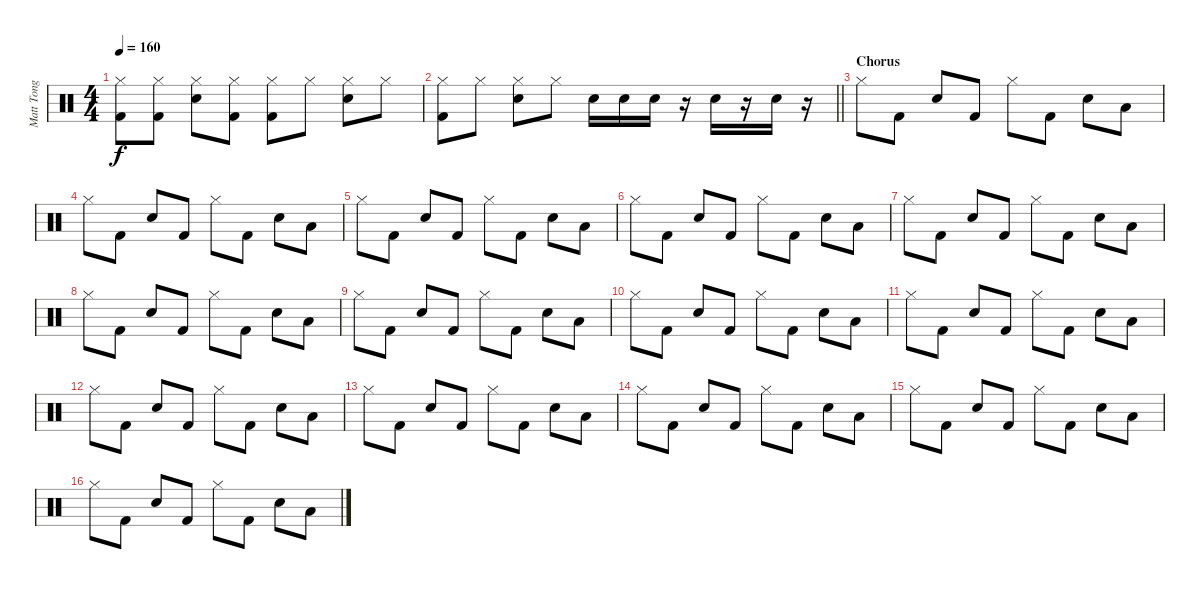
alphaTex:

\track ("Matt Tong" "Matt Tong") {instrument percussion}
\staff {score}
\articulation defaults
\ts (4 4)
\tempo 160
\clef neutral
\ks c
("Hi-Hat (closed)" "Kick (hit) 2").8{dy f} ("Hi-Hat (closed)" "Kick (hit) 2").8 ("Hi-Hat (closed)" "Snare (hit) 2").8 ("Hi-Hat (closed)" "Kick (hit) 2").8 ("Hi-Hat (closed)" "Kick (hit) 2").8 "Hi-Hat (closed)".8 ("Hi-Hat (closed)" "Snare (hit) 2").8 "Hi-Hat (closed)".8 |
\barLineRight lightlight
("Hi-Hat (closed)" "Kick (hit) 2").8 "Hi-Hat (closed)".8 ("Hi-Hat (closed)" "Snare (hit) 2").8 "Hi-Hat (closed)".8 "Snare (hit) 2".16 "Snare (hit) 2".16 "Snare (hit) 2".16 r.16 "Snare (hit) 2".16 r.16 "Snare (hit) 2".16 r.16 |
\section ("" "Chorus")
"Hi-Hat (closed)".8 "Kick (hit) 2".8 "Snare (hit) 2".8 "Kick (hit) 2".8 "Hi-Hat (closed)".8 "Kick (hit) 2".8 "Snare (hit) 2".8 "Low Tom (hit)".8 |
"Hi-Hat (closed)".8 "Kick (hit) 2".8 "Snare (hit) 2".8 "Kick (hit) 2".8 "Hi-Hat (closed)".8 "Kick (hit) 2".8 "Snare (hit) 2".8 "Low Tom (hit)".8 |
"Hi-Hat (closed)".8 "Kick (hit) 2".8 "Snare (hit) 2".8 "Kick (hit) 2".8 "Hi-Hat (closed)".8 "Kick (hit) 2".8 "Snare (hit) 2".8 "Low Tom (hit)".8 |
"Hi-Hat (closed)".8 "Kick (hit) 2".8 "Snare (hit) 2".8 "Kick (hit) 2".8 "Hi-Hat (closed)".8 "Kick (hit) 2".8 "Snare (hit) 2".8 "Low Tom (hit)".8 |
"Hi-Hat (closed)".8 "Kick (hit) 2".8 "Snare (hit) 2".8 "Kick (hit) 2".8 "Hi-Hat (closed)".8 "Kick (hit) 2".8 "Snare (hit) 2".8 "Low Tom (hit)".8 |
"Hi-Hat (closed)".8 "Kick (hit) 2".8 "Snare (hit) 2".8 "Kick (hit) 2".8 "Hi-Hat (closed)".8 "Kick (hit) 2".8 "Snare (hit) 2".8 "Low Tom (hit)".8 |
"Hi-Hat (closed)".8 "Kick (hit) 2".8 "Snare (hit) 2".8 "Kick (hit) 2".8 "Hi-Hat (closed)".8 "Kick (hit) 2".8 "Snare (hit) 2".8 "Low Tom (hit)".8 |
"Hi-Hat (closed)".8 "Kick (hit) 2".8 "Snare (hit) 2".8 "Kick (hit) 2".8 "Hi-Hat (closed)".8 "Kick (hit) 2".8 "Snare (hit) 2".8 "Low Tom (hit)".8 |
"Hi-Hat (closed)".8 "Kick (hit) 2".8 "Snare (hit) 2".8 "Kick (hit) 2".8 "Hi-Hat (closed)".8 "Kick (hit) 2".8 "Snare (hit) 2".8 "Low Tom (hit)".8 |
"Hi-Hat (closed)".8 "Kick (hit) 2".8 "Snare (hit) 2".8 "Kick (hit) 2".8 "Hi-Hat (closed)".8 "Kick (hit) 2".8 "Snare (hit) 2".8 "Low Tom (hit)".8 |
"Hi-Hat (closed)".8 "Kick (hit) 2".8 "Snare (hit) 2".8 "Kick (hit) 2".8 "Hi-Hat (closed)".8 "Kick (hit) 2".8 "Snare (hit) 2".8 "Low Tom (hit)".8 |
"Hi-Hat (closed)".8 "Kick (hit) 2".8 "Snare (hit) 2".8 "Kick (hit) 2".8 "Hi-Hat (closed)".8 "Kick (hit) 2".8 "Snare (hit) 2".8 "Low Tom (hit)".8 |
"Hi-Hat (closed)".8 "Kick (hit) 2".8 "Snare (hit) 2".8 "Kick (hit) 2".8 "Hi-Hat (closed)".8 "Kick (hit) 2".8 "Snare (hit) 2".8 "Low Tom (hit)".8 |
"Hi-Hat (closed)".8 "Kick (hit) 2".8 "Snare (hit) 2".8 "Kick (hit) 2".8 "Hi-Hat (closed)".8 "Kick (hit) 2".8 "Snare (hit) 2".8 "Low Tom (hit)".8
